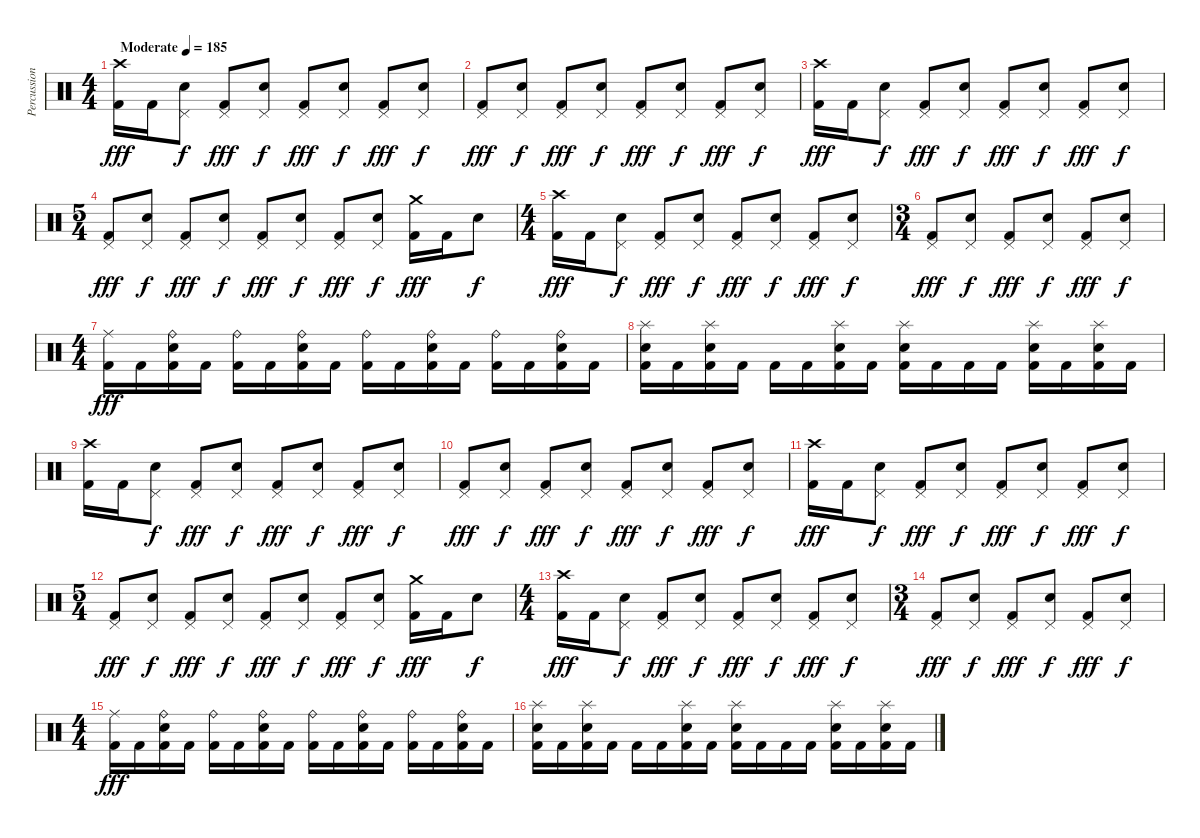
\track ("Percussion" "Percussion") {instrument percussion}
\staff {score}
\articulation defaults
\ts (4 4)
\tempo (185 "Moderate")
\clef neutral
\ks c
("Crash high (hit)" "Kick (hit) 2").16{dy fff} "Kick (hit) 2".16 ("Pedal Hi-Hat (hit)" "Electric Snare (hit)").8{dy f} ("Pedal Hi-Hat (hit)" "Kick (hit) 2").8{dy fff} ("Pedal Hi-Hat (hit)" "Electric Snare (hit)").8{dy f} ("Pedal Hi-Hat (hit)" "Kick (hit) 2").8{dy fff} ("Pedal Hi-Hat (hit)" "Electric Snare (hit)").8{dy f} ("Pedal Hi-Hat (hit)" "Kick (hit) 2").8{dy fff} ("Pedal Hi-Hat (hit)" "Electric Snare (hit)").8{dy f} |
("Pedal Hi-Hat (hit)" "Kick (hit) 2").8{dy fff} ("Pedal Hi-Hat (hit)" "Electric Snare (hit)").8{dy f} ("Pedal Hi-Hat (hit)" "Kick (hit) 2").8{dy fff} ("Pedal Hi-Hat (hit)" "Electric Snare (hit)").8{dy f} ("Pedal Hi-Hat (hit)" "Kick (hit) 2").8{dy fff} ("Pedal Hi-Hat (hit)" "Electric Snare (hit)").8{dy f} ("Pedal Hi-Hat (hit)" "Kick (hit) 2").8{dy fff} ("Pedal Hi-Hat (hit)" "Electric Snare (hit)").8{dy f} |
("Crash high (hit)" "Kick (hit) 2").16{dy fff} "Kick (hit) 2".16 ("Pedal Hi-Hat (hit)" "Electric Snare (hit)").8{dy f} ("Pedal Hi-Hat (hit)" "Kick (hit) 2").8{dy fff} ("Pedal Hi-Hat (hit)" "Electric Snare (hit)").8{dy f} ("Pedal Hi-Hat (hit)" "Kick (hit) 2").8{dy fff} ("Pedal Hi-Hat (hit)" "Electric Snare (hit)").8{dy f} ("Pedal Hi-Hat (hit)" "Kick (hit) 2").8{dy fff} ("Pedal Hi-Hat (hit)" "Electric Snare (hit)").8{dy f} |
\ts (5 4)
("Pedal Hi-Hat (hit)" "Kick (hit) 2").8{dy fff} ("Pedal Hi-Hat (hit)" "Electric Snare (hit)").8{dy f} ("Pedal Hi-Hat (hit)" "Kick (hit) 2").8{dy fff} ("Pedal Hi-Hat (hit)" "Electric Snare (hit)").8{dy f} ("Pedal Hi-Hat (hit)" "Kick (hit) 2").8{dy fff} ("Pedal Hi-Hat (hit)" "Electric Snare (hit)").8{dy f} ("Pedal Hi-Hat (hit)" "Kick (hit) 2").8{dy fff} ("Pedal Hi-Hat (hit)" "Electric Snare (hit)").8{dy f} ("Crash medium (hit)" "Kick (hit) 2").16{dy fff} "Kick (hit) 2".16 "Electric Snare (hit)".8{dy f} |
\ts (4 4)
("Crash high (hit)" "Kick (hit) 2").16{dy fff} "Kick (hit) 2".16 ("Pedal Hi-Hat (hit)" "Electric Snare (hit)").8{dy f} ("Pedal Hi-Hat (hit)" "Kick (hit) 2").8{dy fff} ("Pedal Hi-Hat (hit)" "Electric Snare (hit)").8{dy f} ("Pedal Hi-Hat (hit)" "Kick (hit) 2").8{dy fff} ("Pedal Hi-Hat (hit)" "Electric Snare (hit)").8{dy f} ("Pedal Hi-Hat (hit)" "Kick (hit) 2").8{dy fff} ("Pedal Hi-Hat (hit)" "Electric Snare (hit)").8{dy f} |
\ts (3 4)
("Pedal Hi-Hat (hit)" "Kick (hit) 2").8{dy fff} ("Pedal Hi-Hat (hit)" "Electric Snare (hit)").8{dy f} ("Pedal Hi-Hat (hit)" "Kick (hit) 2").8{dy fff} ("Pedal Hi-Hat (hit)" "Electric Snare (hit)").8{dy f} ("Pedal Hi-Hat (hit)" "Kick (hit) 2").8{dy fff} ("Pedal Hi-Hat (hit)" "Electric Snare (hit)").8{dy f} |
\ts (4 4)
("Ride (middle)" "Kick (hit) 2").16{dy fff} "Kick (hit) 2".16 ("Ride (bell)" "Electric Snare (hit)" "Kick (hit) 2").16 "Kick (hit) 2".16 ("Ride (bell)" "Kick (hit) 2").16 "Kick (hit) 2".16 ("Ride (bell)" "Electric Snare (hit)" "Kick (hit) 2").16 "Kick (hit) 2".16 ("Ride (bell)" "Kick (hit) 2").16 "Kick (hit) 2".16 ("Ride (bell)" "Electric Snare (hit)" "Kick (hit) 2").16 "Kick (hit) 2".16 ("Ride (bell)" "Kick (hit) 2").16 "Kick (hit) 2".16 ("Ride (bell)" "Electric Snare (hit)" "Kick (hit) 2").16 "Kick (hit) 2".16 |
("Splash (hit)" "Electric Snare (hit)" "Kick (hit) 2").16 "Kick (hit) 2".16 ("Splash (hit)" "Electric Snare (hit)" "Kick (hit) 2").16 "Kick (hit) 2".16 "Kick (hit) 2".16 "Kick (hit) 2".16 ("Splash (hit)" "Electric Snare (hit)" "Kick (hit) 2").16 "Kick (hit) 2".16 ("Splash (hit)" "Electric Snare (hit)" "Kick (hit) 2").16 "Kick (hit) 2".16 "Kick (hit) 2".16 "Kick (hit) 2".16 ("Splash (hit)" "Electric Snare (hit)" "Kick (hit) 2").16 "Kick (hit) 2".16 ("Splash (hit)" "Electric Snare (hit)" "Kick (hit) 2").16 "Kick (hit) 2".16 |
("Crash high (hit)" "Kick (hit) 2").16 "Kick (hit) 2".16 ("Pedal Hi-Hat (hit)" "Electric Snare (hit)").8{dy f} ("Pedal Hi-Hat (hit)" "Kick (hit) 2").8{dy fff} ("Pedal Hi-Hat (hit)" "Electric Snare (hit)").8{dy f} ("Pedal Hi-Hat (hit)" "Kick (hit) 2").8{dy fff} ("Pedal Hi-Hat (hit)" "Electric Snare (hit)").8{dy f} ("Pedal Hi-Hat (hit)" "Kick (hit) 2").8{dy fff} ("Pedal Hi-Hat (hit)" "Electric Snare (hit)").8{dy f} |
("Pedal Hi-Hat (hit)" "Kick (hit) 2").8{dy fff} ("Pedal Hi-Hat (hit)" "Electric Snare (hit)").8{dy f} ("Pedal Hi-Hat (hit)" "Kick (hit) 2").8{dy fff} ("Pedal Hi-Hat (hit)" "Electric Snare (hit)").8{dy f} ("Pedal Hi-Hat (hit)" "Kick (hit) 2").8{dy fff} ("Pedal Hi-Hat (hit)" "Electric Snare (hit)").8{dy f} ("Pedal Hi-Hat (hit)" "Kick (hit) 2").8{dy fff} ("Pedal Hi-Hat (hit)" "Electric Snare (hit)").8{dy f} |
("Crash high (hit)" "Kick (hit) 2").16{dy fff} "Kick (hit) 2".16 ("Pedal Hi-Hat (hit)" "Electric Snare (hit)").8{dy f} ("Pedal Hi-Hat (hit)" "Kick (hit) 2").8{dy fff} ("Pedal Hi-Hat (hit)" "Electric Snare (hit)").8{dy f} ("Pedal Hi-Hat (hit)" "Kick (hit) 2").8{dy fff} ("Pedal Hi-Hat (hit)" "Electric Snare (hit)").8{dy f} ("Pedal Hi-Hat (hit)" "Kick (hit) 2").8{dy fff} ("Pedal Hi-Hat (hit)" "Electric Snare (hit)").8{dy f} |
\ts (5 4)
("Pedal Hi-Hat (hit)" "Kick (hit) 2").8{dy fff} ("Pedal Hi-Hat (hit)" "Electric Snare (hit)").8{dy f} ("Pedal Hi-Hat (hit)" "Kick (hit) 2").8{dy fff} ("Pedal Hi-Hat (hit)" "Electric Snare (hit)").8{dy f} ("Pedal Hi-Hat (hit)" "Kick (hit) 2").8{dy fff} ("Pedal Hi-Hat (hit)" "Electric Snare (hit)").8{dy f} ("Pedal Hi-Hat (hit)" "Kick (hit) 2").8{dy fff} ("Pedal Hi-Hat (hit)" "Electric Snare (hit)").8{dy f} ("Crash medium (hit)" "Kick (hit) 2").16{dy fff} "Kick (hit) 2".16 "Electric Snare (hit)".8{dy f} |
\ts (4 4)
("Crash high (hit)" "Kick (hit) 2").16{dy fff} "Kick (hit) 2".16 ("Pedal Hi-Hat (hit)" "Electric Snare (hit)").8{dy f} ("Pedal Hi-Hat (hit)" "Kick (hit) 2").8{dy fff} ("Pedal Hi-Hat (hit)" "Electric Snare (hit)").8{dy f} ("Pedal Hi-Hat (hit)" "Kick (hit) 2").8{dy fff} ("Pedal Hi-Hat (hit)" "Electric Snare (hit)").8{dy f} ("Pedal Hi-Hat (hit)" "Kick (hit) 2").8{dy fff} ("Pedal Hi-Hat (hit)" "Electric Snare (hit)").8{dy f} |
\ts (3 4)
("Pedal Hi-Hat (hit)" "Kick (hit) 2").8{dy fff} ("Pedal Hi-Hat (hit)" "Electric Snare (hit)").8{dy f} ("Pedal Hi-Hat (hit)" "Kick (hit) 2").8{dy fff} ("Pedal Hi-Hat (hit)" "Electric Snare (hit)").8{dy f} ("Pedal Hi-Hat (hit)" "Kick (hit) 2").8{dy fff} ("Pedal Hi-Hat (hit)" "Electric Snare (hit)").8{dy f} |
\ts (4 4)
("Ride (middle)" "Kick (hit) 2").16{dy fff} "Kick (hit) 2".16 ("Ride (bell)" "Electric Snare (hit)" "Kick (hit) 2").16 "Kick (hit) 2".16 ("Ride (bell)" "Kick (hit) 2").16 "Kick (hit) 2".16 ("Ride (bell)" "Electric Snare (hit)" "Kick (hit) 2").16 "Kick (hit) 2".16 ("Ride (bell)" "Kick (hit) 2").16 "Kick (hit) 2".16 ("Ride (bell)" "Electric Snare (hit)" "Kick (hit) 2").16 "Kick (hit) 2".16 ("Ride (bell)" "Kick (hit) 2").16 "Kick (hit) 2".16 ("Ride (bell)" "Electric Snare (hit)" "Kick (hit) 2").16 "Kick (hit) 2".16 |
("Splash (hit)" "Electric Snare (hit)" "Kick (hit) 2").16 "Kick (hit) 2".16 ("Splash (hit)" "Electric Snare (hit)" "Kick (hit) 2").16 "Kick (hit) 2".16 "Kick (hit) 2".16 "Kick (hit) 2".16 ("Splash (hit)" "Electric Snare (hit)" "Kick (hit) 2").16 "Kick (hit) 2".16 ("Splash (hit)" "Electric Snare (hit)" "Kick (hit) 2").16 "Kick (hit) 2".16 "Kick (hit) 2".16 "Kick (hit) 2".16 ("Splash (hit)" "Electric Snare (hit)" "Kick (hit) 2").16 "Kick (hit) 2".16 ("Splash (hit)" "Electric Snare (hit)" "Kick (hit) 2").16 "Kick (hit) 2".16
